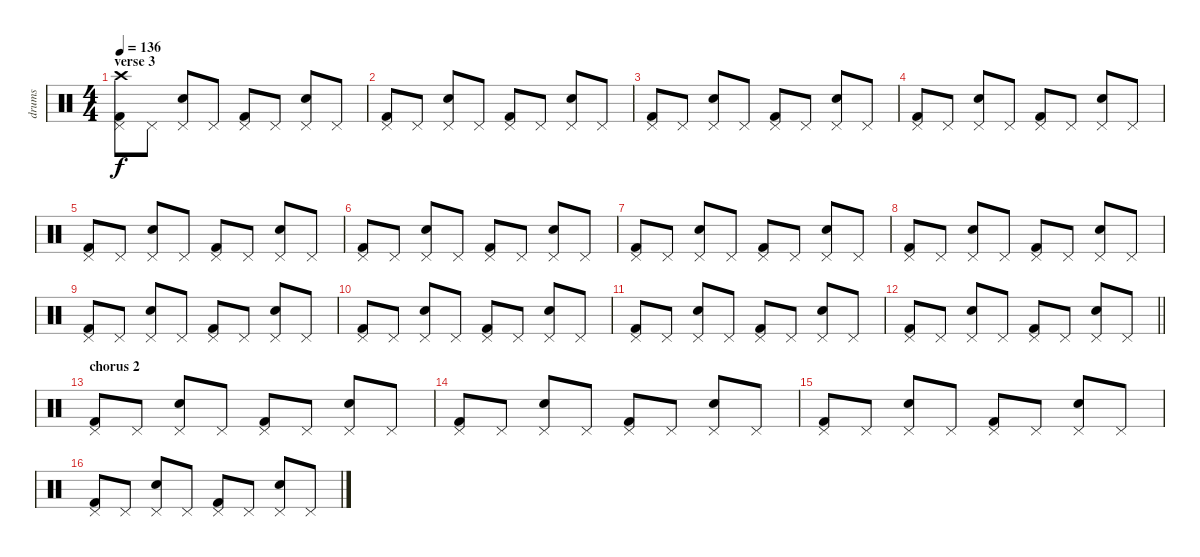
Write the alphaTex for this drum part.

\track ("drums" "drums") {instrument percussion}
\staff {score}
\articulation defaults
\ts (4 4)
\section ("" "verse 3")
\tempo 136
\clef neutral
\ks c
("Kick (hit) 2" "Pedal Hi-Hat (hit)" "Crash high (hit)").8{dy f} "Pedal Hi-Hat (hit)".8 ("Electric Snare (hit)" "Pedal Hi-Hat (hit)").8 "Pedal Hi-Hat (hit)".8 ("Kick (hit) 2" "Pedal Hi-Hat (hit)").8 "Pedal Hi-Hat (hit)".8 ("Electric Snare (hit)" "Pedal Hi-Hat (hit)").8 "Pedal Hi-Hat (hit)".8 |
("Kick (hit) 2" "Pedal Hi-Hat (hit)").8 "Pedal Hi-Hat (hit)".8 ("Electric Snare (hit)" "Pedal Hi-Hat (hit)").8 "Pedal Hi-Hat (hit)".8 ("Kick (hit) 2" "Pedal Hi-Hat (hit)").8 "Pedal Hi-Hat (hit)".8 ("Electric Snare (hit)" "Pedal Hi-Hat (hit)").8 "Pedal Hi-Hat (hit)".8 |
("Kick (hit) 2" "Pedal Hi-Hat (hit)").8 "Pedal Hi-Hat (hit)".8 ("Electric Snare (hit)" "Pedal Hi-Hat (hit)").8 "Pedal Hi-Hat (hit)".8 ("Kick (hit) 2" "Pedal Hi-Hat (hit)").8 "Pedal Hi-Hat (hit)".8 ("Electric Snare (hit)" "Pedal Hi-Hat (hit)").8 "Pedal Hi-Hat (hit)".8 |
("Kick (hit) 2" "Pedal Hi-Hat (hit)").8 "Pedal Hi-Hat (hit)".8 ("Electric Snare (hit)" "Pedal Hi-Hat (hit)").8 "Pedal Hi-Hat (hit)".8 ("Kick (hit) 2" "Pedal Hi-Hat (hit)").8 "Pedal Hi-Hat (hit)".8 ("Electric Snare (hit)" "Pedal Hi-Hat (hit)").8 "Pedal Hi-Hat (hit)".8 |
("Kick (hit) 2" "Pedal Hi-Hat (hit)").8 "Pedal Hi-Hat (hit)".8 ("Electric Snare (hit)" "Pedal Hi-Hat (hit)").8 "Pedal Hi-Hat (hit)".8 ("Kick (hit) 2" "Pedal Hi-Hat (hit)").8 "Pedal Hi-Hat (hit)".8 ("Electric Snare (hit)" "Pedal Hi-Hat (hit)").8 "Pedal Hi-Hat (hit)".8 |
("Kick (hit) 2" "Pedal Hi-Hat (hit)").8 "Pedal Hi-Hat (hit)".8 ("Electric Snare (hit)" "Pedal Hi-Hat (hit)").8 "Pedal Hi-Hat (hit)".8 ("Kick (hit) 2" "Pedal Hi-Hat (hit)").8 "Pedal Hi-Hat (hit)".8 ("Electric Snare (hit)" "Pedal Hi-Hat (hit)").8 "Pedal Hi-Hat (hit)".8 |
("Kick (hit) 2" "Pedal Hi-Hat (hit)").8 "Pedal Hi-Hat (hit)".8 ("Electric Snare (hit)" "Pedal Hi-Hat (hit)").8 "Pedal Hi-Hat (hit)".8 ("Kick (hit) 2" "Pedal Hi-Hat (hit)").8 "Pedal Hi-Hat (hit)".8 ("Electric Snare (hit)" "Pedal Hi-Hat (hit)").8 "Pedal Hi-Hat (hit)".8 |
("Kick (hit) 2" "Pedal Hi-Hat (hit)").8 "Pedal Hi-Hat (hit)".8 ("Electric Snare (hit)" "Pedal Hi-Hat (hit)").8 "Pedal Hi-Hat (hit)".8 ("Kick (hit) 2" "Pedal Hi-Hat (hit)").8 "Pedal Hi-Hat (hit)".8 ("Electric Snare (hit)" "Pedal Hi-Hat (hit)").8 "Pedal Hi-Hat (hit)".8 |
("Kick (hit) 2" "Pedal Hi-Hat (hit)").8 "Pedal Hi-Hat (hit)".8 ("Electric Snare (hit)" "Pedal Hi-Hat (hit)").8 "Pedal Hi-Hat (hit)".8 ("Kick (hit) 2" "Pedal Hi-Hat (hit)").8 "Pedal Hi-Hat (hit)".8 ("Electric Snare (hit)" "Pedal Hi-Hat (hit)").8 "Pedal Hi-Hat (hit)".8 |
("Kick (hit) 2" "Pedal Hi-Hat (hit)").8 "Pedal Hi-Hat (hit)".8 ("Electric Snare (hit)" "Pedal Hi-Hat (hit)").8 "Pedal Hi-Hat (hit)".8 ("Kick (hit) 2" "Pedal Hi-Hat (hit)").8 "Pedal Hi-Hat (hit)".8 ("Electric Snare (hit)" "Pedal Hi-Hat (hit)").8 "Pedal Hi-Hat (hit)".8 |
("Kick (hit) 2" "Pedal Hi-Hat (hit)").8 "Pedal Hi-Hat (hit)".8 ("Electric Snare (hit)" "Pedal Hi-Hat (hit)").8 "Pedal Hi-Hat (hit)".8 ("Kick (hit) 2" "Pedal Hi-Hat (hit)").8 "Pedal Hi-Hat (hit)".8 ("Electric Snare (hit)" "Pedal Hi-Hat (hit)").8 "Pedal Hi-Hat (hit)".8 |
\barLineRight lightlight
("Kick (hit) 2" "Pedal Hi-Hat (hit)").8 "Pedal Hi-Hat (hit)".8 ("Electric Snare (hit)" "Pedal Hi-Hat (hit)").8 "Pedal Hi-Hat (hit)".8 ("Kick (hit) 2" "Pedal Hi-Hat (hit)").8 "Pedal Hi-Hat (hit)".8 ("Electric Snare (hit)" "Pedal Hi-Hat (hit)").8 "Pedal Hi-Hat (hit)".8 |
\section ("" "chorus 2")
("Kick (hit) 2" "Pedal Hi-Hat (hit)").8 "Pedal Hi-Hat (hit)".8 ("Electric Snare (hit)" "Pedal Hi-Hat (hit)").8 "Pedal Hi-Hat (hit)".8 ("Kick (hit) 2" "Pedal Hi-Hat (hit)").8 "Pedal Hi-Hat (hit)".8 ("Electric Snare (hit)" "Pedal Hi-Hat (hit)").8 "Pedal Hi-Hat (hit)".8 |
("Kick (hit) 2" "Pedal Hi-Hat (hit)").8 "Pedal Hi-Hat (hit)".8 ("Electric Snare (hit)" "Pedal Hi-Hat (hit)").8 "Pedal Hi-Hat (hit)".8 ("Kick (hit) 2" "Pedal Hi-Hat (hit)").8 "Pedal Hi-Hat (hit)".8 ("Electric Snare (hit)" "Pedal Hi-Hat (hit)").8 "Pedal Hi-Hat (hit)".8 |
("Kick (hit) 2" "Pedal Hi-Hat (hit)").8 "Pedal Hi-Hat (hit)".8 ("Electric Snare (hit)" "Pedal Hi-Hat (hit)").8 "Pedal Hi-Hat (hit)".8 ("Kick (hit) 2" "Pedal Hi-Hat (hit)").8 "Pedal Hi-Hat (hit)".8 ("Electric Snare (hit)" "Pedal Hi-Hat (hit)").8 "Pedal Hi-Hat (hit)".8 |
("Kick (hit) 2" "Pedal Hi-Hat (hit)").8 "Pedal Hi-Hat (hit)".8 ("Electric Snare (hit)" "Pedal Hi-Hat (hit)").8 "Pedal Hi-Hat (hit)".8 ("Kick (hit) 2" "Pedal Hi-Hat (hit)").8 "Pedal Hi-Hat (hit)".8 ("Electric Snare (hit)" "Pedal Hi-Hat (hit)").8 "Pedal Hi-Hat (hit)".8
